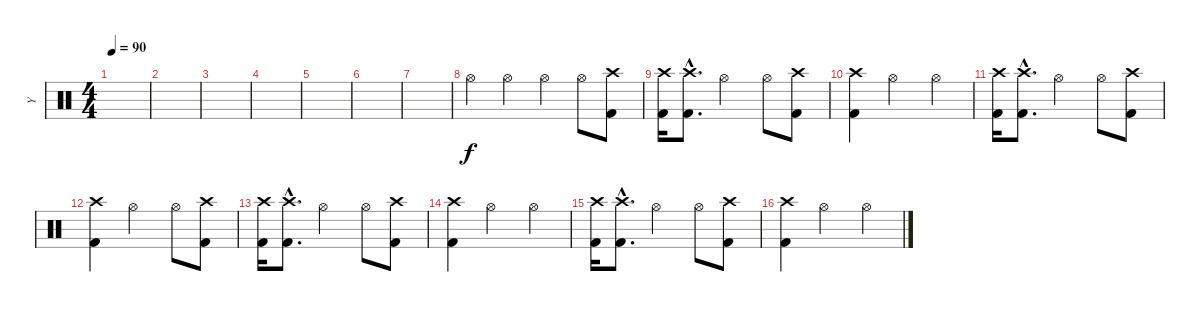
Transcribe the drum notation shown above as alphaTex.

\track ("Y" "Y") {instrument percussion}
\staff {score}
\articulation defaults
\ts (4 4)
\tempo 90
\clef neutral
\ks c
|
|
|
|
|
|
|
"Hi-Hat (open)".4 "Hi-Hat (open)".4 "Hi-Hat (open)".4 "Hi-Hat (open)".8 ("Crash high (hit)" "Kick (hit) 2").8 |
("Crash high (hit)" "Kick (hit) 2").16 ("Crash high (hit)"{hac} "Kick (hit) 2"{hac}).8{d} "Hi-Hat (open)".2 "Hi-Hat (open)".8 ("Crash high (hit)" "Kick (hit) 2").8 |
("Crash high (hit)" "Kick (hit) 2").4 "Hi-Hat (open)".2 "Hi-Hat (open)".4 |
("Crash high (hit)" "Kick (hit) 2").16 ("Crash high (hit)"{hac} "Kick (hit) 2"{hac}).8{d} "Hi-Hat (open)".2 "Hi-Hat (open)".8 ("Crash high (hit)" "Kick (hit) 2").8 |
("Crash high (hit)" "Kick (hit) 2").4 "Hi-Hat (open)".2 "Hi-Hat (open)".8 ("Crash high (hit)" "Kick (hit) 2").8 |
("Crash high (hit)" "Kick (hit) 2").16 ("Crash high (hit)"{hac} "Kick (hit) 2"{hac}).8{d} "Hi-Hat (open)".2 "Hi-Hat (open)".8 ("Crash high (hit)" "Kick (hit) 2").8 |
("Crash high (hit)" "Kick (hit) 2").4 "Hi-Hat (open)".2 "Hi-Hat (open)".4 |
("Crash high (hit)" "Kick (hit) 2").16 ("Crash high (hit)"{hac} "Kick (hit) 2"{hac}).8{d} "Hi-Hat (open)".2 "Hi-Hat (open)".8 ("Crash high (hit)" "Kick (hit) 2").8 |
("Crash high (hit)" "Kick (hit) 2").4 "Hi-Hat (open)".2 "Hi-Hat (open)".4
